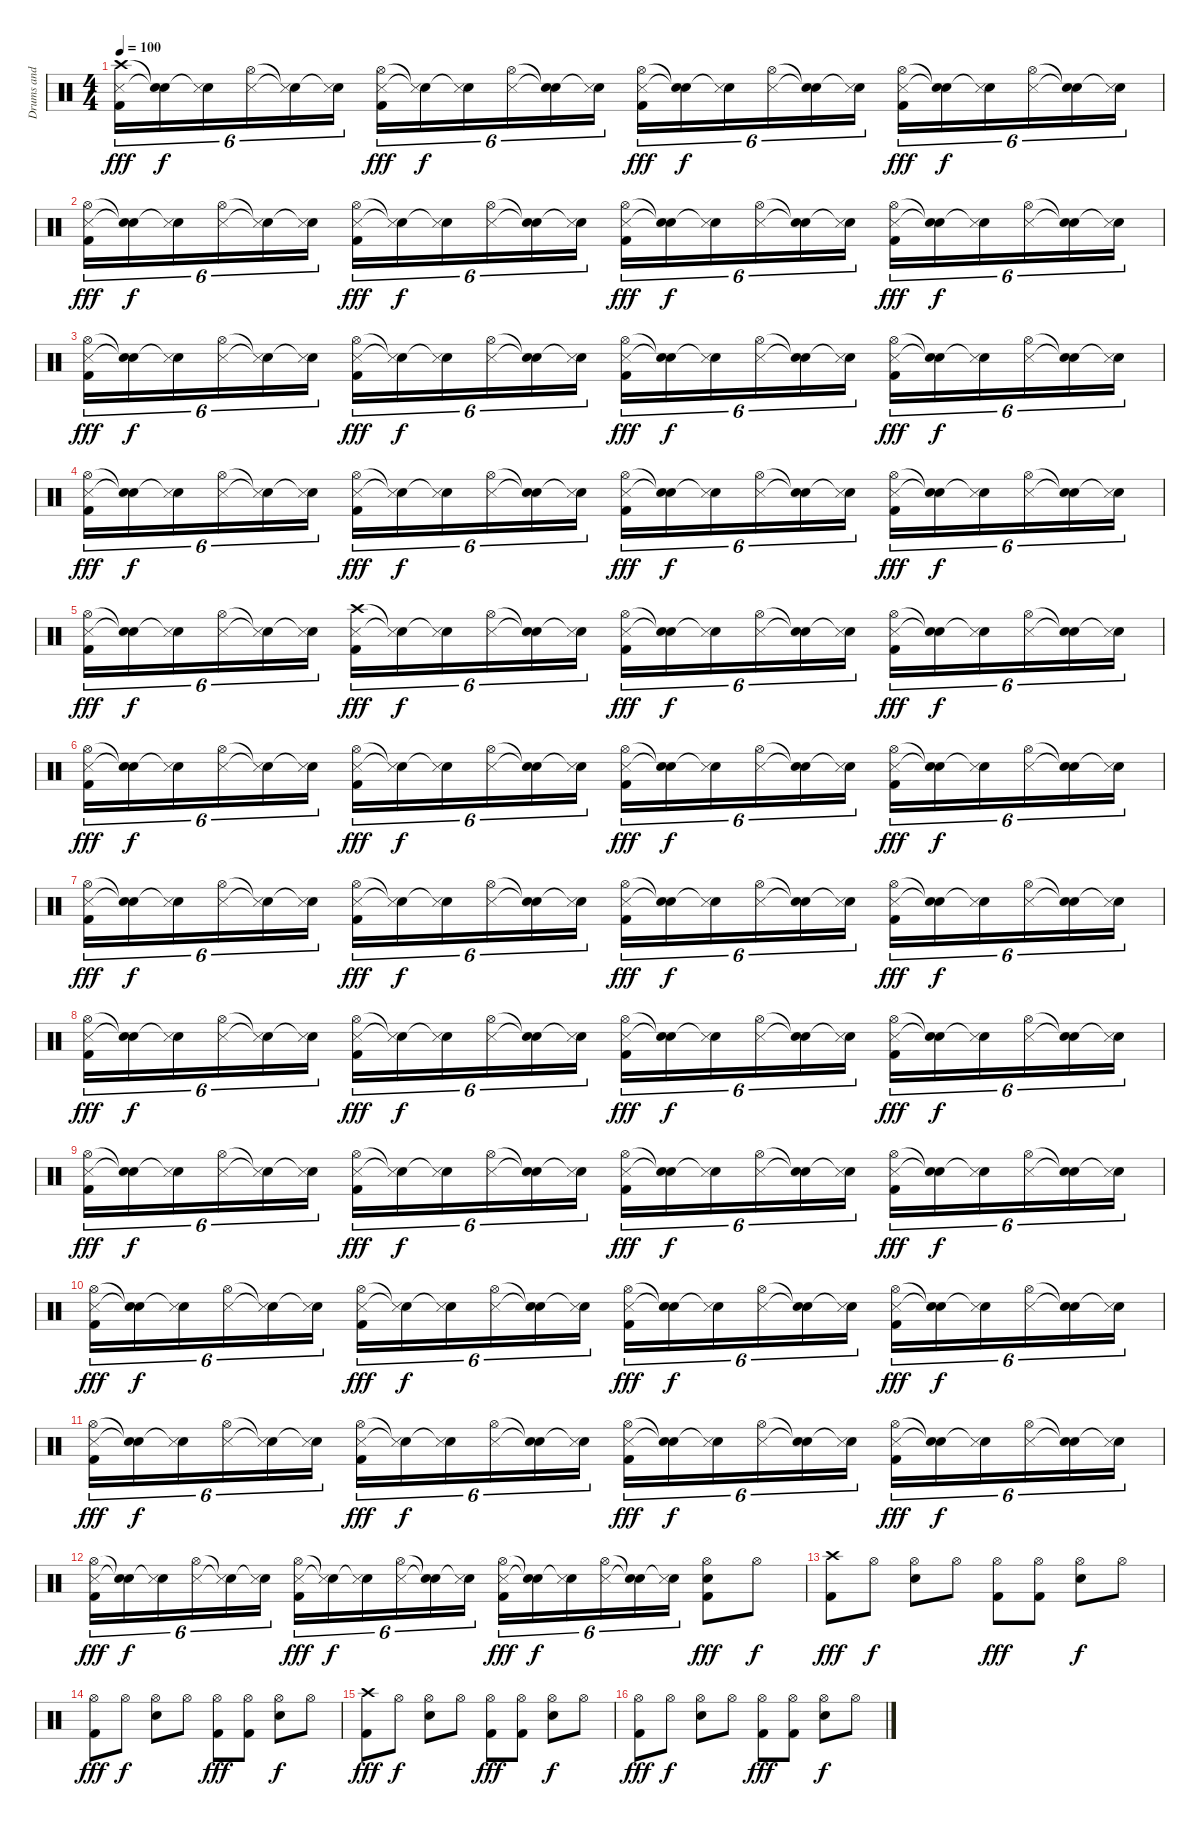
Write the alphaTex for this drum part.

\track ("Drums and Percussion" "Drums and ") {instrument percussion}
\staff {score}
\articulation defaults
\ts (4 4)
\tempo 100
\clef neutral
\ks c
("Crash high (hit)" "Snare (side stick) 3" "Kick (hit) 2").16{tu (6 4) dy fff} ("Snare (hit)"{t} "Snare (hit)"{t}).16{tu (6 4) dy f} ("Snare (hit)"{t} "Snare (side stick) 3").16{tu (6 4)} ("Hi-Hat (open)" "Snare (side stick) 3").16{tu (6 4)} ("Snare (hit)"{t} "Snare (side stick) 3"{t}).16{tu (6 4)} ("Snare (hit)"{t} "Snare (side stick) 3").16{tu (6 4)} ("Hi-Hat (open)" "Snare (side stick) 3" "Kick (hit) 2").16{tu (6 4) dy fff} ("Snare (hit)"{t} "Snare (side stick) 3"{t}).16{tu (6 4) dy f} ("Snare (hit)"{t} "Snare (side stick) 3").16{tu (6 4)} ("Hi-Hat (open)" "Snare (side stick) 3").16{tu (6 4)} ("Snare (hit)"{t} "Snare (hit)"{t}).16{tu (6 4)} ("Snare (hit)"{t} "Snare (side stick) 3").16{tu (6 4)} ("Hi-Hat (open)" "Snare (side stick) 3" "Kick (hit) 2").16{tu (6 4) dy fff} ("Snare (hit)"{t} "Snare (hit)"{t}).16{tu (6 4) dy f} ("Snare (hit)"{t} "Snare (side stick) 3").16{tu (6 4)} ("Hi-Hat (open)" "Snare (side stick) 3").16{tu (6 4)} ("Snare (hit)"{t} "Snare (hit)"{t}).16{tu (6 4)} ("Snare (hit)"{t} "Snare (side stick) 3").16{tu (6 4)} ("Hi-Hat (open)" "Snare (side stick) 3" "Kick (hit) 2").16{tu (6 4) dy fff} ("Snare (hit)"{t} "Snare (hit)"{t}).16{tu (6 4) dy f} ("Snare (hit)"{t} "Snare (side stick) 3").16{tu (6 4)} ("Hi-Hat (open)" "Snare (side stick) 3").16{tu (6 4)} ("Snare (hit)"{t} "Snare (hit)"{t}).16{tu (6 4)} ("Snare (hit)"{t} "Snare (side stick) 3").16{tu (6 4)} |
("Hi-Hat (open)" "Snare (side stick) 3" "Kick (hit) 2").16{tu (6 4) dy fff} ("Snare (hit)"{t} "Snare (hit)"{t}).16{tu (6 4) dy f} ("Snare (hit)"{t} "Snare (side stick) 3").16{tu (6 4)} ("Hi-Hat (open)" "Snare (side stick) 3").16{tu (6 4)} ("Snare (hit)"{t} "Snare (side stick) 3"{t}).16{tu (6 4)} ("Snare (hit)"{t} "Snare (side stick) 3").16{tu (6 4)} ("Hi-Hat (open)" "Snare (side stick) 3" "Kick (hit) 2").16{tu (6 4) dy fff} ("Snare (hit)"{t} "Snare (side stick) 3"{t}).16{tu (6 4) dy f} ("Snare (hit)"{t} "Snare (side stick) 3").16{tu (6 4)} ("Hi-Hat (open)" "Snare (side stick) 3").16{tu (6 4)} ("Snare (hit)"{t} "Snare (hit)"{t}).16{tu (6 4)} ("Snare (hit)"{t} "Snare (side stick) 3").16{tu (6 4)} ("Hi-Hat (open)" "Snare (side stick) 3" "Kick (hit) 2").16{tu (6 4) dy fff} ("Snare (hit)"{t} "Snare (hit)"{t}).16{tu (6 4) dy f} ("Snare (hit)"{t} "Snare (side stick) 3").16{tu (6 4)} ("Hi-Hat (open)" "Snare (side stick) 3").16{tu (6 4)} ("Snare (hit)"{t} "Snare (hit)"{t}).16{tu (6 4)} ("Snare (hit)"{t} "Snare (side stick) 3").16{tu (6 4)} ("Hi-Hat (open)" "Snare (side stick) 3" "Kick (hit) 2").16{tu (6 4) dy fff} ("Snare (hit)"{t} "Snare (hit)"{t}).16{tu (6 4) dy f} ("Snare (hit)"{t} "Snare (side stick) 3").16{tu (6 4)} ("Hi-Hat (open)" "Snare (side stick) 3").16{tu (6 4)} ("Snare (hit)"{t} "Snare (hit)"{t}).16{tu (6 4)} ("Snare (hit)"{t} "Snare (side stick) 3").16{tu (6 4)} |
("Hi-Hat (open)" "Snare (side stick) 3" "Kick (hit) 2").16{tu (6 4) dy fff} ("Snare (hit)"{t} "Snare (hit)"{t}).16{tu (6 4) dy f} ("Snare (hit)"{t} "Snare (side stick) 3").16{tu (6 4)} ("Hi-Hat (open)" "Snare (side stick) 3").16{tu (6 4)} ("Snare (hit)"{t} "Snare (side stick) 3"{t}).16{tu (6 4)} ("Snare (hit)"{t} "Snare (side stick) 3").16{tu (6 4)} ("Hi-Hat (open)" "Snare (side stick) 3" "Kick (hit) 2").16{tu (6 4) dy fff} ("Snare (hit)"{t} "Snare (side stick) 3"{t}).16{tu (6 4) dy f} ("Snare (hit)"{t} "Snare (side stick) 3").16{tu (6 4)} ("Hi-Hat (open)" "Snare (side stick) 3").16{tu (6 4)} ("Snare (hit)"{t} "Snare (hit)"{t}).16{tu (6 4)} ("Snare (hit)"{t} "Snare (side stick) 3").16{tu (6 4)} ("Hi-Hat (open)" "Snare (side stick) 3" "Kick (hit) 2").16{tu (6 4) dy fff} ("Snare (hit)"{t} "Snare (hit)"{t}).16{tu (6 4) dy f} ("Snare (hit)"{t} "Snare (side stick) 3").16{tu (6 4)} ("Hi-Hat (open)" "Snare (side stick) 3").16{tu (6 4)} ("Snare (hit)"{t} "Snare (hit)"{t}).16{tu (6 4)} ("Snare (hit)"{t} "Snare (side stick) 3").16{tu (6 4)} ("Hi-Hat (open)" "Snare (side stick) 3" "Kick (hit) 2").16{tu (6 4) dy fff} ("Snare (hit)"{t} "Snare (hit)"{t}).16{tu (6 4) dy f} ("Snare (hit)"{t} "Snare (side stick) 3").16{tu (6 4)} ("Hi-Hat (open)" "Snare (side stick) 3").16{tu (6 4)} ("Snare (hit)"{t} "Snare (hit)"{t}).16{tu (6 4)} ("Snare (hit)"{t} "Snare (side stick) 3").16{tu (6 4)} |
("Hi-Hat (open)" "Snare (side stick) 3" "Kick (hit) 2").16{tu (6 4) dy fff} ("Snare (hit)"{t} "Snare (hit)"{t}).16{tu (6 4) dy f} ("Snare (hit)"{t} "Snare (side stick) 3").16{tu (6 4)} ("Hi-Hat (open)" "Snare (side stick) 3").16{tu (6 4)} ("Snare (hit)"{t} "Snare (side stick) 3"{t}).16{tu (6 4)} ("Snare (hit)"{t} "Snare (side stick) 3").16{tu (6 4)} ("Hi-Hat (open)" "Snare (side stick) 3" "Kick (hit) 2").16{tu (6 4) dy fff} ("Snare (hit)"{t} "Snare (side stick) 3"{t}).16{tu (6 4) dy f} ("Snare (hit)"{t} "Snare (side stick) 3").16{tu (6 4)} ("Hi-Hat (open)" "Snare (side stick) 3").16{tu (6 4)} ("Snare (hit)"{t} "Snare (hit)"{t}).16{tu (6 4)} ("Snare (hit)"{t} "Snare (side stick) 3").16{tu (6 4)} ("Hi-Hat (open)" "Snare (side stick) 3" "Kick (hit) 2").16{tu (6 4) dy fff} ("Snare (hit)"{t} "Snare (hit)"{t}).16{tu (6 4) dy f} ("Snare (hit)"{t} "Snare (side stick) 3").16{tu (6 4)} ("Hi-Hat (open)" "Snare (side stick) 3").16{tu (6 4)} ("Snare (hit)"{t} "Snare (hit)"{t}).16{tu (6 4)} ("Snare (hit)"{t} "Snare (side stick) 3").16{tu (6 4)} ("Hi-Hat (open)" "Snare (side stick) 3" "Kick (hit) 2").16{tu (6 4) dy fff} ("Snare (hit)"{t} "Snare (hit)"{t}).16{tu (6 4) dy f} ("Snare (hit)"{t} "Snare (side stick) 3").16{tu (6 4)} ("Hi-Hat (open)" "Snare (side stick) 3").16{tu (6 4)} ("Snare (hit)"{t} "Snare (hit)"{t}).16{tu (6 4)} ("Snare (hit)"{t} "Snare (side stick) 3").16{tu (6 4)} |
("Hi-Hat (open)" "Snare (side stick) 3" "Kick (hit) 2").16{tu (6 4) dy fff} ("Snare (hit)"{t} "Snare (hit)"{t}).16{tu (6 4) dy f} ("Snare (hit)"{t} "Snare (side stick) 3").16{tu (6 4)} ("Hi-Hat (open)" "Snare (side stick) 3").16{tu (6 4)} ("Snare (hit)"{t} "Snare (side stick) 3"{t}).16{tu (6 4)} ("Snare (hit)"{t} "Snare (side stick) 3").16{tu (6 4)} ("Crash high (hit)" "Snare (side stick) 3" "Kick (hit) 2").16{tu (6 4) dy fff} ("Snare (hit)"{t} "Snare (side stick) 3"{t}).16{tu (6 4) dy f} ("Snare (hit)"{t} "Snare (side stick) 3").16{tu (6 4)} ("Hi-Hat (open)" "Snare (side stick) 3").16{tu (6 4)} ("Snare (hit)"{t} "Snare (hit)"{t}).16{tu (6 4)} ("Snare (hit)"{t} "Snare (side stick) 3").16{tu (6 4)} ("Hi-Hat (open)" "Snare (side stick) 3" "Kick (hit) 2").16{tu (6 4) dy fff} ("Snare (hit)"{t} "Snare (hit)"{t}).16{tu (6 4) dy f} ("Snare (hit)"{t} "Snare (side stick) 3").16{tu (6 4)} ("Hi-Hat (open)" "Snare (side stick) 3").16{tu (6 4)} ("Snare (hit)"{t} "Snare (hit)"{t}).16{tu (6 4)} ("Snare (hit)"{t} "Snare (side stick) 3").16{tu (6 4)} ("Hi-Hat (open)" "Snare (side stick) 3" "Kick (hit) 2").16{tu (6 4) dy fff} ("Snare (hit)"{t} "Snare (hit)"{t}).16{tu (6 4) dy f} ("Snare (hit)"{t} "Snare (side stick) 3").16{tu (6 4)} ("Hi-Hat (open)" "Snare (side stick) 3").16{tu (6 4)} ("Snare (hit)"{t} "Snare (hit)"{t}).16{tu (6 4)} ("Snare (hit)"{t} "Snare (side stick) 3").16{tu (6 4)} |
("Hi-Hat (open)" "Snare (side stick) 3" "Kick (hit) 2").16{tu (6 4) dy fff} ("Snare (hit)"{t} "Snare (hit)"{t}).16{tu (6 4) dy f} ("Snare (hit)"{t} "Snare (side stick) 3").16{tu (6 4)} ("Hi-Hat (open)" "Snare (side stick) 3").16{tu (6 4)} ("Snare (hit)"{t} "Snare (side stick) 3"{t}).16{tu (6 4)} ("Snare (hit)"{t} "Snare (side stick) 3").16{tu (6 4)} ("Hi-Hat (open)" "Snare (side stick) 3" "Kick (hit) 2").16{tu (6 4) dy fff} ("Snare (hit)"{t} "Snare (side stick) 3"{t}).16{tu (6 4) dy f} ("Snare (hit)"{t} "Snare (side stick) 3").16{tu (6 4)} ("Hi-Hat (open)" "Snare (side stick) 3").16{tu (6 4)} ("Snare (hit)"{t} "Snare (hit)"{t}).16{tu (6 4)} ("Snare (hit)"{t} "Snare (side stick) 3").16{tu (6 4)} ("Hi-Hat (open)" "Snare (side stick) 3" "Kick (hit) 2").16{tu (6 4) dy fff} ("Snare (hit)"{t} "Snare (hit)"{t}).16{tu (6 4) dy f} ("Snare (hit)"{t} "Snare (side stick) 3").16{tu (6 4)} ("Hi-Hat (open)" "Snare (side stick) 3").16{tu (6 4)} ("Snare (hit)"{t} "Snare (hit)"{t}).16{tu (6 4)} ("Snare (hit)"{t} "Snare (side stick) 3").16{tu (6 4)} ("Hi-Hat (open)" "Snare (side stick) 3" "Kick (hit) 2").16{tu (6 4) dy fff} ("Snare (hit)"{t} "Snare (hit)"{t}).16{tu (6 4) dy f} ("Snare (hit)"{t} "Snare (side stick) 3").16{tu (6 4)} ("Hi-Hat (open)" "Snare (side stick) 3").16{tu (6 4)} ("Snare (hit)"{t} "Snare (hit)"{t}).16{tu (6 4)} ("Snare (hit)"{t} "Snare (side stick) 3").16{tu (6 4)} |
("Hi-Hat (open)" "Snare (side stick) 3" "Kick (hit) 2").16{tu (6 4) dy fff} ("Snare (hit)"{t} "Snare (hit)"{t}).16{tu (6 4) dy f} ("Snare (hit)"{t} "Snare (side stick) 3").16{tu (6 4)} ("Hi-Hat (open)" "Snare (side stick) 3").16{tu (6 4)} ("Snare (hit)"{t} "Snare (side stick) 3"{t}).16{tu (6 4)} ("Snare (hit)"{t} "Snare (side stick) 3").16{tu (6 4)} ("Hi-Hat (open)" "Snare (side stick) 3" "Kick (hit) 2").16{tu (6 4) dy fff} ("Snare (hit)"{t} "Snare (side stick) 3"{t}).16{tu (6 4) dy f} ("Snare (hit)"{t} "Snare (side stick) 3").16{tu (6 4)} ("Hi-Hat (open)" "Snare (side stick) 3").16{tu (6 4)} ("Snare (hit)"{t} "Snare (hit)"{t}).16{tu (6 4)} ("Snare (hit)"{t} "Snare (side stick) 3").16{tu (6 4)} ("Hi-Hat (open)" "Snare (side stick) 3" "Kick (hit) 2").16{tu (6 4) dy fff} ("Snare (hit)"{t} "Snare (hit)"{t}).16{tu (6 4) dy f} ("Snare (hit)"{t} "Snare (side stick) 3").16{tu (6 4)} ("Hi-Hat (open)" "Snare (side stick) 3").16{tu (6 4)} ("Snare (hit)"{t} "Snare (hit)"{t}).16{tu (6 4)} ("Snare (hit)"{t} "Snare (side stick) 3").16{tu (6 4)} ("Hi-Hat (open)" "Snare (side stick) 3" "Kick (hit) 2").16{tu (6 4) dy fff} ("Snare (hit)"{t} "Snare (hit)"{t}).16{tu (6 4) dy f} ("Snare (hit)"{t} "Snare (side stick) 3").16{tu (6 4)} ("Hi-Hat (open)" "Snare (side stick) 3").16{tu (6 4)} ("Snare (hit)"{t} "Snare (hit)"{t}).16{tu (6 4)} ("Snare (hit)"{t} "Snare (side stick) 3").16{tu (6 4)} |
("Hi-Hat (open)" "Snare (side stick) 3" "Kick (hit) 2").16{tu (6 4) dy fff} ("Snare (hit)"{t} "Snare (hit)"{t}).16{tu (6 4) dy f} ("Snare (hit)"{t} "Snare (side stick) 3").16{tu (6 4)} ("Hi-Hat (open)" "Snare (side stick) 3").16{tu (6 4)} ("Snare (hit)"{t} "Snare (side stick) 3"{t}).16{tu (6 4)} ("Snare (hit)"{t} "Snare (side stick) 3").16{tu (6 4)} ("Hi-Hat (open)" "Snare (side stick) 3" "Kick (hit) 2").16{tu (6 4) dy fff} ("Snare (hit)"{t} "Snare (side stick) 3"{t}).16{tu (6 4) dy f} ("Snare (hit)"{t} "Snare (side stick) 3").16{tu (6 4)} ("Hi-Hat (open)" "Snare (side stick) 3").16{tu (6 4)} ("Snare (hit)"{t} "Snare (hit)"{t}).16{tu (6 4)} ("Snare (hit)"{t} "Snare (side stick) 3").16{tu (6 4)} ("Hi-Hat (open)" "Snare (side stick) 3" "Kick (hit) 2").16{tu (6 4) dy fff} ("Snare (hit)"{t} "Snare (hit)"{t}).16{tu (6 4) dy f} ("Snare (hit)"{t} "Snare (side stick) 3").16{tu (6 4)} ("Hi-Hat (open)" "Snare (side stick) 3").16{tu (6 4)} ("Snare (hit)"{t} "Snare (hit)"{t}).16{tu (6 4)} ("Snare (hit)"{t} "Snare (side stick) 3").16{tu (6 4)} ("Hi-Hat (open)" "Snare (side stick) 3" "Kick (hit) 2").16{tu (6 4) dy fff} ("Snare (hit)"{t} "Snare (hit)"{t}).16{tu (6 4) dy f} ("Snare (hit)"{t} "Snare (side stick) 3").16{tu (6 4)} ("Hi-Hat (open)" "Snare (side stick) 3").16{tu (6 4)} ("Snare (hit)"{t} "Snare (hit)"{t}).16{tu (6 4)} ("Snare (hit)"{t} "Snare (side stick) 3").16{tu (6 4)} |
("Hi-Hat (open)" "Snare (side stick) 3" "Kick (hit) 2").16{tu (6 4) dy fff} ("Snare (hit)"{t} "Snare (hit)"{t}).16{tu (6 4) dy f} ("Snare (hit)"{t} "Snare (side stick) 3").16{tu (6 4)} ("Hi-Hat (open)" "Snare (side stick) 3").16{tu (6 4)} ("Snare (hit)"{t} "Snare (side stick) 3"{t}).16{tu (6 4)} ("Snare (hit)"{t} "Snare (side stick) 3").16{tu (6 4)} ("Hi-Hat (open)" "Snare (side stick) 3" "Kick (hit) 2").16{tu (6 4) dy fff} ("Snare (hit)"{t} "Snare (side stick) 3"{t}).16{tu (6 4) dy f} ("Snare (hit)"{t} "Snare (side stick) 3").16{tu (6 4)} ("Hi-Hat (open)" "Snare (side stick) 3").16{tu (6 4)} ("Snare (hit)"{t} "Snare (hit)"{t}).16{tu (6 4)} ("Snare (hit)"{t} "Snare (side stick) 3").16{tu (6 4)} ("Hi-Hat (open)" "Snare (side stick) 3" "Kick (hit) 2").16{tu (6 4) dy fff} ("Snare (hit)"{t} "Snare (hit)"{t}).16{tu (6 4) dy f} ("Snare (hit)"{t} "Snare (side stick) 3").16{tu (6 4)} ("Hi-Hat (open)" "Snare (side stick) 3").16{tu (6 4)} ("Snare (hit)"{t} "Snare (hit)"{t}).16{tu (6 4)} ("Snare (hit)"{t} "Snare (side stick) 3").16{tu (6 4)} ("Hi-Hat (open)" "Snare (side stick) 3" "Kick (hit) 2").16{tu (6 4) dy fff} ("Snare (hit)"{t} "Snare (hit)"{t}).16{tu (6 4) dy f} ("Snare (hit)"{t} "Snare (side stick) 3").16{tu (6 4)} ("Hi-Hat (open)" "Snare (side stick) 3").16{tu (6 4)} ("Snare (hit)"{t} "Snare (hit)"{t}).16{tu (6 4)} ("Snare (hit)"{t} "Snare (side stick) 3").16{tu (6 4)} |
("Hi-Hat (open)" "Snare (side stick) 3" "Kick (hit) 2").16{tu (6 4) dy fff} ("Snare (hit)"{t} "Snare (hit)"{t}).16{tu (6 4) dy f} ("Snare (hit)"{t} "Snare (side stick) 3").16{tu (6 4)} ("Hi-Hat (open)" "Snare (side stick) 3").16{tu (6 4)} ("Snare (hit)"{t} "Snare (side stick) 3"{t}).16{tu (6 4)} ("Snare (hit)"{t} "Snare (side stick) 3").16{tu (6 4)} ("Hi-Hat (open)" "Snare (side stick) 3" "Kick (hit) 2").16{tu (6 4) dy fff} ("Snare (hit)"{t} "Snare (side stick) 3"{t}).16{tu (6 4) dy f} ("Snare (hit)"{t} "Snare (side stick) 3").16{tu (6 4)} ("Hi-Hat (open)" "Snare (side stick) 3").16{tu (6 4)} ("Snare (hit)"{t} "Snare (hit)"{t}).16{tu (6 4)} ("Snare (hit)"{t} "Snare (side stick) 3").16{tu (6 4)} ("Hi-Hat (open)" "Snare (side stick) 3" "Kick (hit) 2").16{tu (6 4) dy fff} ("Snare (hit)"{t} "Snare (hit)"{t}).16{tu (6 4) dy f} ("Snare (hit)"{t} "Snare (side stick) 3").16{tu (6 4)} ("Hi-Hat (open)" "Snare (side stick) 3").16{tu (6 4)} ("Snare (hit)"{t} "Snare (hit)"{t}).16{tu (6 4)} ("Snare (hit)"{t} "Snare (side stick) 3").16{tu (6 4)} ("Hi-Hat (open)" "Snare (side stick) 3" "Kick (hit) 2").16{tu (6 4) dy fff} ("Snare (hit)"{t} "Snare (hit)"{t}).16{tu (6 4) dy f} ("Snare (hit)"{t} "Snare (side stick) 3").16{tu (6 4)} ("Hi-Hat (open)" "Snare (side stick) 3").16{tu (6 4)} ("Snare (hit)"{t} "Snare (hit)"{t}).16{tu (6 4)} ("Snare (hit)"{t} "Snare (side stick) 3").16{tu (6 4)} |
("Hi-Hat (open)" "Snare (side stick) 3" "Kick (hit) 2").16{tu (6 4) dy fff} ("Snare (hit)"{t} "Snare (hit)"{t}).16{tu (6 4) dy f} ("Snare (hit)"{t} "Snare (side stick) 3").16{tu (6 4)} ("Hi-Hat (open)" "Snare (side stick) 3").16{tu (6 4)} ("Snare (hit)"{t} "Snare (side stick) 3"{t}).16{tu (6 4)} ("Snare (hit)"{t} "Snare (side stick) 3").16{tu (6 4)} ("Hi-Hat (open)" "Snare (side stick) 3" "Kick (hit) 2").16{tu (6 4) dy fff} ("Snare (hit)"{t} "Snare (side stick) 3"{t}).16{tu (6 4) dy f} ("Snare (hit)"{t} "Snare (side stick) 3").16{tu (6 4)} ("Hi-Hat (open)" "Snare (side stick) 3").16{tu (6 4)} ("Snare (hit)"{t} "Snare (hit)"{t}).16{tu (6 4)} ("Snare (hit)"{t} "Snare (side stick) 3").16{tu (6 4)} ("Hi-Hat (open)" "Snare (side stick) 3" "Kick (hit) 2").16{tu (6 4) dy fff} ("Snare (hit)"{t} "Snare (hit)"{t}).16{tu (6 4) dy f} ("Snare (hit)"{t} "Snare (side stick) 3").16{tu (6 4)} ("Hi-Hat (open)" "Snare (side stick) 3").16{tu (6 4)} ("Snare (hit)"{t} "Snare (hit)"{t}).16{tu (6 4)} ("Snare (hit)"{t} "Snare (side stick) 3").16{tu (6 4)} ("Hi-Hat (open)" "Snare (side stick) 3" "Kick (hit) 2").16{tu (6 4) dy fff} ("Snare (hit)"{t} "Snare (hit)"{t}).16{tu (6 4) dy f} ("Snare (hit)"{t} "Snare (side stick) 3").16{tu (6 4)} ("Hi-Hat (open)" "Snare (side stick) 3").16{tu (6 4)} ("Snare (hit)"{t} "Snare (hit)"{t}).16{tu (6 4)} ("Snare (hit)"{t} "Snare (side stick) 3").16{tu (6 4)} |
("Hi-Hat (open)" "Snare (side stick) 3" "Kick (hit) 2").16{tu (6 4) dy fff} ("Snare (hit)"{t} "Snare (hit)"{t}).16{tu (6 4) dy f} ("Snare (hit)"{t} "Snare (side stick) 3").16{tu (6 4)} ("Hi-Hat (open)" "Snare (side stick) 3").16{tu (6 4)} ("Snare (hit)"{t} "Snare (side stick) 3"{t}).16{tu (6 4)} ("Snare (hit)"{t} "Snare (side stick) 3").16{tu (6 4)} ("Hi-Hat (open)" "Snare (side stick) 3" "Kick (hit) 2").16{tu (6 4) dy fff} ("Snare (hit)"{t} "Snare (side stick) 3"{t}).16{tu (6 4) dy f} ("Snare (hit)"{t} "Snare (side stick) 3").16{tu (6 4)} ("Hi-Hat (open)" "Snare (side stick) 3").16{tu (6 4)} ("Snare (hit)"{t} "Snare (hit)"{t}).16{tu (6 4)} ("Snare (hit)"{t} "Snare (side stick) 3").16{tu (6 4)} ("Hi-Hat (open)" "Snare (side stick) 3" "Kick (hit) 2").16{tu (6 4) dy fff} ("Snare (hit)"{t} "Snare (hit)"{t}).16{tu (6 4) dy f} ("Snare (hit)"{t} "Snare (side stick) 3").16{tu (6 4)} ("Hi-Hat (open)" "Snare (side stick) 3").16{tu (6 4)} ("Snare (hit)"{t} "Snare (hit)"{t}).16{tu (6 4)} ("Snare (hit)"{t} "Snare (side stick) 3").16{tu (6 4)} ("Hi-Hat (open)" "Snare (hit) 2" "Kick (hit) 2").8{dy fff} "Hi-Hat (open)".8{dy f} |
("Crash high (hit)" "Kick (hit) 2").8{dy fff} "Hi-Hat (open)".8{dy f} ("Hi-Hat (open)" "Snare (hit) 2").8 "Hi-Hat (open)".8 ("Hi-Hat (open)" "Kick (hit) 2").8{dy fff} ("Hi-Hat (open)" "Kick (hit) 2").8 ("Hi-Hat (open)" "Snare (hit) 2").8{dy f} "Hi-Hat (open)".8 |
("Hi-Hat (open)" "Kick (hit) 2").8{dy fff} "Hi-Hat (open)".8{dy f} ("Hi-Hat (open)" "Snare (hit) 2").8 "Hi-Hat (open)".8 ("Hi-Hat (open)" "Kick (hit) 2").8{dy fff} ("Hi-Hat (open)" "Kick (hit) 2").8 ("Hi-Hat (open)" "Snare (hit) 2").8{dy f} "Hi-Hat (open)".8 |
("Crash high (hit)" "Kick (hit) 2").8{dy fff} "Hi-Hat (open)".8{dy f} ("Hi-Hat (open)" "Snare (hit) 2").8 "Hi-Hat (open)".8 ("Hi-Hat (open)" "Kick (hit) 2").8{dy fff} ("Hi-Hat (open)" "Kick (hit) 2").8 ("Hi-Hat (open)" "Snare (hit) 2").8{dy f} "Hi-Hat (open)".8 |
("Hi-Hat (open)" "Kick (hit) 2").8{dy fff} "Hi-Hat (open)".8{dy f} ("Hi-Hat (open)" "Snare (hit) 2").8 "Hi-Hat (open)".8 ("Hi-Hat (open)" "Kick (hit) 2").8{dy fff} ("Hi-Hat (open)" "Kick (hit) 2").8 ("Hi-Hat (open)" "Snare (hit) 2").8{dy f} "Hi-Hat (open)".8
